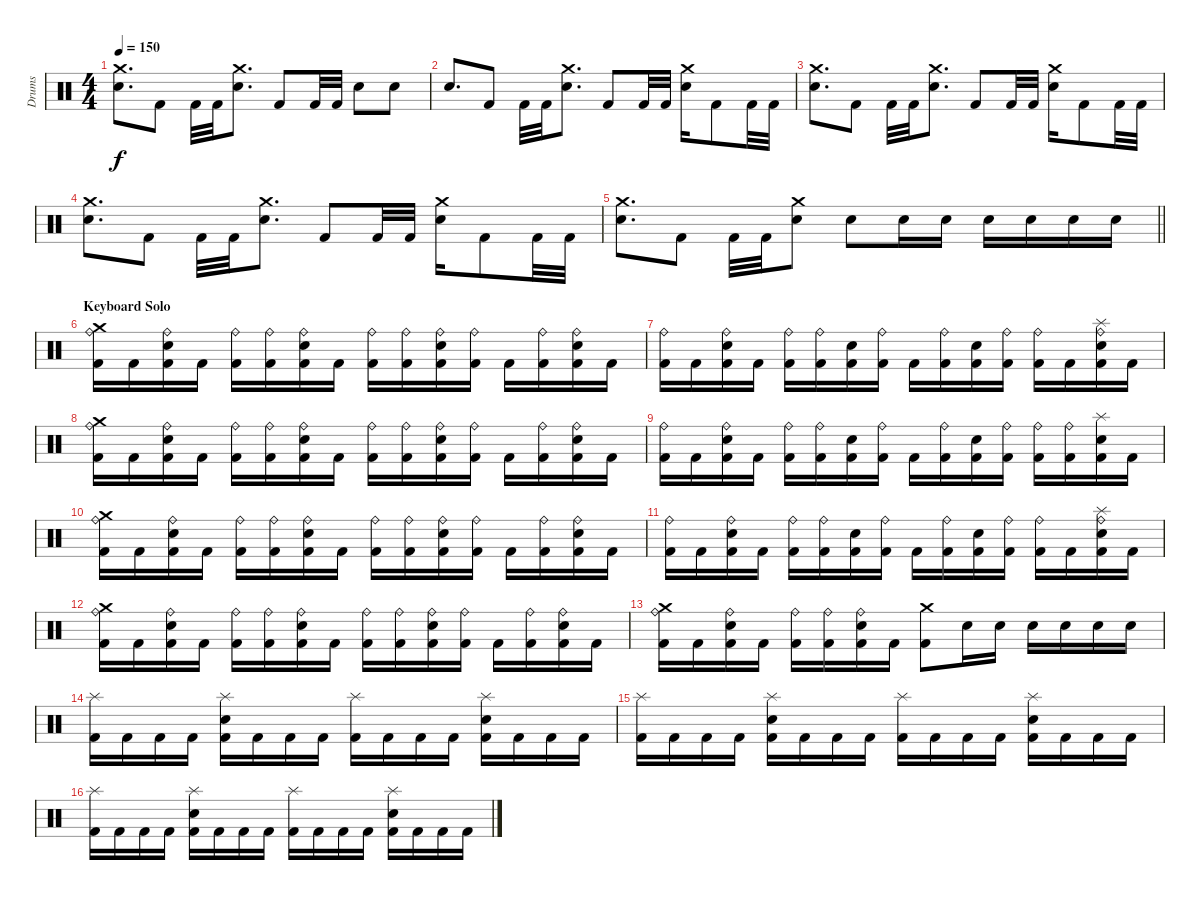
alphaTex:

\track ("Drums" "Drums") {instrument percussion}
\staff {score}
\articulation defaults
\ts (4 4)
\tempo 150
\clef neutral
\ks c
("Crash medium (hit)" "Electric Snare (hit)").8{d dy f} "Kick (hit) 2".8 "Kick (hit) 2".32 "Kick (hit) 2".32 ("Crash medium (hit)" "Electric Snare (hit)").8{d} "Kick (hit) 2".8 "Kick (hit) 2".32 "Kick (hit) 2".32 "Electric Snare (hit)".8 "Electric Snare (hit)".8 |
"Electric Snare (hit)".8{d} "Kick (hit) 2".8 "Kick (hit) 2".32 "Kick (hit) 2".32 ("Crash medium (hit)" "Electric Snare (hit)").8{d} "Kick (hit) 2".8 "Kick (hit) 2".32 "Kick (hit) 2".32 ("Crash medium (hit)" "Electric Snare (hit)").16 "Kick (hit) 2".8 "Kick (hit) 2".32 "Kick (hit) 2".32 |
("Crash medium (hit)" "Electric Snare (hit)").8{d} "Kick (hit) 2".8 "Kick (hit) 2".32 "Kick (hit) 2".32 ("Crash medium (hit)" "Electric Snare (hit)").8{d} "Kick (hit) 2".8 "Kick (hit) 2".32 "Kick (hit) 2".32 ("Crash medium (hit)" "Electric Snare (hit)").16 "Kick (hit) 2".8 "Kick (hit) 2".32 "Kick (hit) 2".32 |
("Crash medium (hit)" "Electric Snare (hit)").8{d} "Kick (hit) 2".8 "Kick (hit) 2".32 "Kick (hit) 2".32 ("Crash medium (hit)" "Electric Snare (hit)").8{d} "Kick (hit) 2".8 "Kick (hit) 2".32 "Kick (hit) 2".32 ("Crash medium (hit)" "Electric Snare (hit)").16 "Kick (hit) 2".8 "Kick (hit) 2".32 "Kick (hit) 2".32 |
\barLineRight lightlight
("Crash medium (hit)" "Electric Snare (hit)").8{d} "Kick (hit) 2".8 "Kick (hit) 2".32 "Kick (hit) 2".32 ("Crash medium (hit)" "Electric Snare (hit)").8 "Electric Snare (hit)".8 "Electric Snare (hit)".16 "Electric Snare (hit)".16 "Electric Snare (hit)".16 "Electric Snare (hit)".16 "Electric Snare (hit)".16 "Electric Snare (hit)".16 |
\section ("" "Keyboard Solo")
("Ride (bell)" "Crash medium (hit)" "Kick (hit) 2").16 "Kick (hit) 2".16 ("Ride (bell)" "Electric Snare (hit)" "Kick (hit) 2").16 "Kick (hit) 2".16 ("Ride (bell)" "Kick (hit) 2").16 ("Ride (bell)" "Kick (hit) 2").16 ("Ride (bell)" "Electric Snare (hit)" "Kick (hit) 2").16 "Kick (hit) 2".16 ("Ride (bell)" "Kick (hit) 2").16 ("Ride (bell)" "Kick (hit) 2").16 ("Ride (bell)" "Electric Snare (hit)" "Kick (hit) 2").16 ("Ride (bell)" "Kick (hit) 2").16 "Kick (hit) 2".16 ("Ride (bell)" "Kick (hit) 2").16 ("Ride (bell)" "Electric Snare (hit)" "Kick (hit) 2").16 "Kick (hit) 2".16 |
("Ride (bell)" "Kick (hit) 2").16 "Kick (hit) 2".16 ("Ride (bell)" "Electric Snare (hit)" "Kick (hit) 2").16 "Kick (hit) 2".16 ("Ride (bell)" "Kick (hit) 2").16 ("Ride (bell)" "Kick (hit) 2").16 ("Electric Snare (hit)" "Kick (hit) 2").16 ("Ride (bell)" "Kick (hit) 2").16 "Kick (hit) 2".16 ("Ride (bell)" "Kick (hit) 2").16 ("Electric Snare (hit)" "Kick (hit) 2").16 ("Ride (bell)" "Kick (hit) 2").16 ("Ride (bell)" "Kick (hit) 2").16 "Kick (hit) 2".16 ("Ride (bell)" "Splash (hit)" "Electric Snare (hit)" "Kick (hit) 2").16 "Kick (hit) 2".16 |
("Ride (bell)" "Crash medium (hit)" "Kick (hit) 2").16 "Kick (hit) 2".16 ("Ride (bell)" "Electric Snare (hit)" "Kick (hit) 2").16 "Kick (hit) 2".16 ("Ride (bell)" "Kick (hit) 2").16 ("Ride (bell)" "Kick (hit) 2").16 ("Ride (bell)" "Electric Snare (hit)" "Kick (hit) 2").16 "Kick (hit) 2".16 ("Ride (bell)" "Kick (hit) 2").16 ("Ride (bell)" "Kick (hit) 2").16 ("Ride (bell)" "Electric Snare (hit)" "Kick (hit) 2").16 ("Ride (bell)" "Kick (hit) 2").16 "Kick (hit) 2".16 ("Ride (bell)" "Kick (hit) 2").16 ("Ride (bell)" "Electric Snare (hit)" "Kick (hit) 2").16 "Kick (hit) 2".16 |
("Ride (bell)" "Kick (hit) 2").16 "Kick (hit) 2".16 ("Ride (bell)" "Electric Snare (hit)" "Kick (hit) 2").16 "Kick (hit) 2".16 ("Ride (bell)" "Kick (hit) 2").16 ("Ride (bell)" "Kick (hit) 2").16 ("Electric Snare (hit)" "Kick (hit) 2").16 ("Ride (bell)" "Kick (hit) 2").16 "Kick (hit) 2".16 ("Ride (bell)" "Kick (hit) 2").16 ("Electric Snare (hit)" "Kick (hit) 2").16 ("Ride (bell)" "Kick (hit) 2").16 ("Ride (bell)" "Kick (hit) 2").16 ("Ride (bell)" "Kick (hit) 2").16 ("Splash (hit)" "Electric Snare (hit)" "Kick (hit) 2").16 "Kick (hit) 2".16 |
("Ride (bell)" "Crash medium (hit)" "Kick (hit) 2").16 "Kick (hit) 2".16 ("Ride (bell)" "Electric Snare (hit)" "Kick (hit) 2").16 "Kick (hit) 2".16 ("Ride (bell)" "Kick (hit) 2").16 ("Ride (bell)" "Kick (hit) 2").16 ("Ride (bell)" "Electric Snare (hit)" "Kick (hit) 2").16 "Kick (hit) 2".16 ("Ride (bell)" "Kick (hit) 2").16 ("Ride (bell)" "Kick (hit) 2").16 ("Ride (bell)" "Electric Snare (hit)" "Kick (hit) 2").16 ("Ride (bell)" "Kick (hit) 2").16 "Kick (hit) 2".16 ("Ride (bell)" "Kick (hit) 2").16 ("Ride (bell)" "Electric Snare (hit)" "Kick (hit) 2").16 "Kick (hit) 2".16 |
("Ride (bell)" "Kick (hit) 2").16 "Kick (hit) 2".16 ("Ride (bell)" "Electric Snare (hit)" "Kick (hit) 2").16 "Kick (hit) 2".16 ("Ride (bell)" "Kick (hit) 2").16 ("Ride (bell)" "Kick (hit) 2").16 ("Electric Snare (hit)" "Kick (hit) 2").16 ("Ride (bell)" "Kick (hit) 2").16 "Kick (hit) 2".16 ("Ride (bell)" "Kick (hit) 2").16 ("Electric Snare (hit)" "Kick (hit) 2").16 ("Ride (bell)" "Kick (hit) 2").16 ("Ride (bell)" "Kick (hit) 2").16 "Kick (hit) 2".16 ("Ride (bell)" "Splash (hit)" "Electric Snare (hit)" "Kick (hit) 2").16 "Kick (hit) 2".16 |
("Ride (bell)" "Crash medium (hit)" "Kick (hit) 2").16 "Kick (hit) 2".16 ("Ride (bell)" "Electric Snare (hit)" "Kick (hit) 2").16 "Kick (hit) 2".16 ("Ride (bell)" "Kick (hit) 2").16 ("Ride (bell)" "Kick (hit) 2").16 ("Ride (bell)" "Electric Snare (hit)" "Kick (hit) 2").16 "Kick (hit) 2".16 ("Ride (bell)" "Kick (hit) 2").16 ("Ride (bell)" "Kick (hit) 2").16 ("Ride (bell)" "Electric Snare (hit)" "Kick (hit) 2").16 ("Ride (bell)" "Kick (hit) 2").16 "Kick (hit) 2".16 ("Ride (bell)" "Kick (hit) 2").16 ("Ride (bell)" "Electric Snare (hit)" "Kick (hit) 2").16 "Kick (hit) 2".16 |
("Ride (bell)" "Crash medium (hit)" "Kick (hit) 2").16 "Kick (hit) 2".16 ("Ride (bell)" "Electric Snare (hit)" "Kick (hit) 2").16 "Kick (hit) 2".16 ("Ride (bell)" "Kick (hit) 2").16 ("Ride (bell)" "Kick (hit) 2").16 ("Ride (bell)" "Electric Snare (hit)" "Kick (hit) 2").16 "Kick (hit) 2".16 ("Crash medium (hit)" "Kick (hit) 2").8 "Electric Snare (hit)".16 "Electric Snare (hit)".16 "Electric Snare (hit)".16 "Electric Snare (hit)".16 "Electric Snare (hit)".16 "Electric Snare (hit)".16 |
("Splash (hit)" "Kick (hit) 2").16 "Kick (hit) 2".16 "Kick (hit) 2".16 "Kick (hit) 2".16 ("Splash (hit)" "Electric Snare (hit)" "Kick (hit) 2").16 "Kick (hit) 2".16 "Kick (hit) 2".16 "Kick (hit) 2".16 ("Splash (hit)" "Kick (hit) 2").16 "Kick (hit) 2".16 "Kick (hit) 2".16 "Kick (hit) 2".16 ("Splash (hit)" "Electric Snare (hit)" "Kick (hit) 2").16 "Kick (hit) 2".16 "Kick (hit) 2".16 "Kick (hit) 2".16 |
("Splash (hit)" "Kick (hit) 2").16 "Kick (hit) 2".16 "Kick (hit) 2".16 "Kick (hit) 2".16 ("Splash (hit)" "Electric Snare (hit)" "Kick (hit) 2").16 "Kick (hit) 2".16 "Kick (hit) 2".16 "Kick (hit) 2".16 ("Splash (hit)" "Kick (hit) 2").16 "Kick (hit) 2".16 "Kick (hit) 2".16 "Kick (hit) 2".16 ("Splash (hit)" "Electric Snare (hit)" "Kick (hit) 2").16 "Kick (hit) 2".16 "Kick (hit) 2".16 "Kick (hit) 2".16 |
("Splash (hit)" "Kick (hit) 2").16 "Kick (hit) 2".16 "Kick (hit) 2".16 "Kick (hit) 2".16 ("Splash (hit)" "Electric Snare (hit)" "Kick (hit) 2").16 "Kick (hit) 2".16 "Kick (hit) 2".16 "Kick (hit) 2".16 ("Splash (hit)" "Kick (hit) 2").16 "Kick (hit) 2".16 "Kick (hit) 2".16 "Kick (hit) 2".16 ("Splash (hit)" "Electric Snare (hit)" "Kick (hit) 2").16 "Kick (hit) 2".16 "Kick (hit) 2".16 "Kick (hit) 2".16
